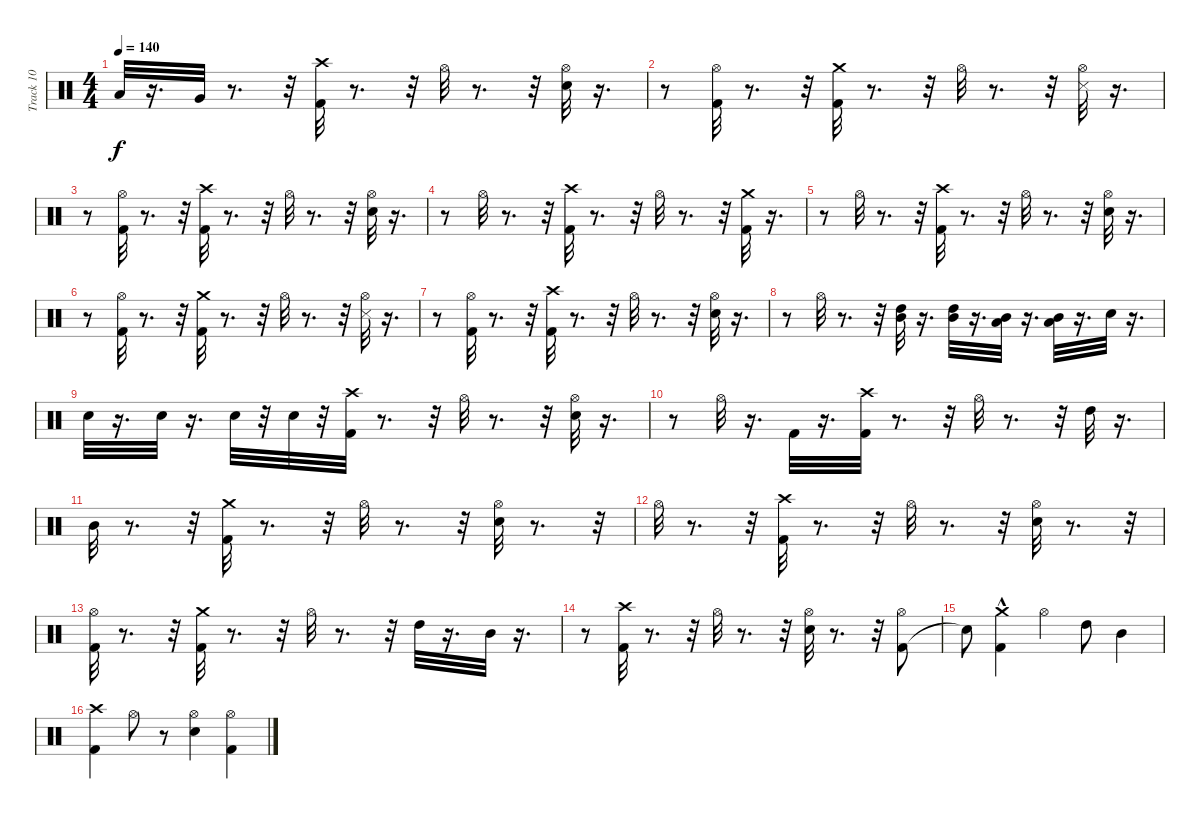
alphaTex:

\track ("Track 10" "Track 10") {instrument percussion}
\staff {score}
\articulation defaults
\ts (4 4)
\tempo 140
\clef neutral
\ks c "Low Tom (hit)".32{dy f}
r.16{d} "Very Low Tom (hit)".32 r.8{d} r.32 ("Crash high (hit)" "Kick (hit) 2").32 r.8{d} r.32 "Hi-Hat (open)".32 r.8{d} r.32 ("Hi-Hat (open)" "Electric Snare (hit)").32 r.16{d} |
r.8 ("Hi-Hat (open)" "Kick (hit) 2").32 r.8{d} r.32 ("Kick (hit) 2" "Crash medium (hit)").32 r.8{d} r.32 "Hi-Hat (open)".32 r.8{d} r.32 ("Snare (side stick) 3" "Hi-Hat (open)").32 r.16{d} |
r.8 ("Hi-Hat (open)" "Kick (hit) 2").32 r.8{d} r.32 ("Crash high (hit)" "Kick (hit) 2").32 r.8{d} r.32 "Hi-Hat (open)".32 r.8{d} r.32 ("Electric Snare (hit)" "Hi-Hat (open)").32 r.16{d} |
r.8 "Hi-Hat (open)".32 r.8{d} r.32 ("Crash high (hit)" "Kick (hit) 2").32 r.8{d} r.32 "Hi-Hat (open)".32 r.8{d} r.32 ("Crash medium (hit)" "Kick (hit) 2").32 r.16{d} |
r.8 "Hi-Hat (open)".32 r.8{d} r.32 ("Crash high (hit)" "Kick (hit) 2").32 r.8{d} r.32 "Hi-Hat (open)".32 r.8{d} r.32 ("Hi-Hat (open)" "Electric Snare (hit)").32 r.16{d} |
r.8 ("Hi-Hat (open)" "Kick (hit) 2").32 r.8{d} r.32 ("Crash medium (hit)" "Kick (hit) 2").32 r.8{d} r.32 "Hi-Hat (open)".32 r.8{d} r.32 ("Hi-Hat (open)" "Snare (side stick) 3").32 r.16{d} |
r.8 ("Hi-Hat (open)" "Kick (hit) 2").32 r.8{d} r.32 ("Crash high (hit)" "Kick (hit) 2").32 r.8{d} r.32 "Hi-Hat (open)".32 r.8{d} r.32 ("Electric Snare (hit)" "Hi-Hat (open)").32 r.16{d} |
r.8 "Hi-Hat (open)".32 r.8{d} r.32 ("Mid Tom (hit)" "High Tom (hit)").32 r.16{d} ("Mid Tom (hit)" "High Tom (hit)").32 r.16{d} ("Low Tom (hit)" "Mid Tom (hit)").32 r.16{d} ("Low Tom (hit)" "Mid Tom (hit)").32 r.16{d} "Electric Snare (hit)".32 r.16{d} |
"Electric Snare (hit)".32 r.16{d} "Electric Snare (hit)".32 r.16{d} "Electric Snare (hit)".32 r.32 "Electric Snare (hit)".32 r.32 ("Crash high (hit)" "Kick (hit) 2").32 r.8{d} r.32 "Hi-Hat (open)".32 r.8{d} r.32 ("Electric Snare (hit)" "Hi-Hat (open)").32 r.16{d} |
r.8 "Hi-Hat (open)".32 r.16{d} "Kick (hit) 2".32 r.16{d} ("Crash high (hit)" "Kick (hit) 2").32 r.8{d} r.32 "Hi-Hat (open)".32 r.8{d} r.32 "High Tom (hit)".32 r.16{d} |
"Mid Tom (hit)".32 r.8{d} r.32 ("Kick (hit) 2" "Crash medium (hit)").32 r.8{d} r.32 "Hi-Hat (open)".32 r.8{d} r.32 ("Electric Snare (hit)" "Hi-Hat (open)").32 r.8{d} r.32 |
"Hi-Hat (open)".32 r.8{d} r.32 ("Crash high (hit)" "Kick (hit) 2").32 r.8{d} r.32 "Hi-Hat (open)".32 r.8{d} r.32 ("Hi-Hat (open)" "Electric Snare (hit)").32 r.8{d} r.32 |
("Kick (hit) 2" "Hi-Hat (open)").32 r.8{d} r.32 ("Kick (hit) 2" "Crash medium (hit)").32 r.8{d} r.32 "Hi-Hat (open)".32 r.8{d} r.32 "High Tom (hit)".32 r.16{d} "Mid Tom (hit)".32 r.16{d} |
r.8 ("Kick (hit) 2" "Crash high (hit)").32 r.8{d} r.32 "Hi-Hat (open)".32 r.8{d} r.32 ("Electric Snare (hit)" "Hi-Hat (open)").32 r.8{d} r.32 ("Kick (hit) 2" "Hi-Hat (open)").8 |
"Snare (hit)"{t}.8 ("Crash medium (hit)" "Kick (hit) 2"{hac}).4 "Hi-Hat (open)".4 "High Tom (hit)".8 "Mid Tom (hit)".4 |
("Crash high (hit)" "Kick (hit) 2").4 "Hi-Hat (open)".8 r.8 ("Hi-Hat (open)" "Electric Snare (hit)").4 ("Hi-Hat (open)" "Kick (hit) 2").4
